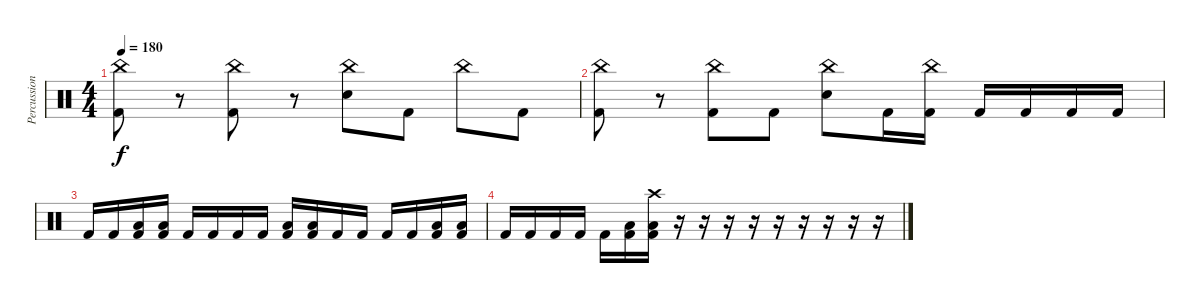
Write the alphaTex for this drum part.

\track ("Percussion" "Percussion") {instrument percussion}
\staff {score}
\articulation defaults
\ts (4 4)
\tempo 180
\clef neutral
\ks c
("China (hit)" "Kick (hit) 2").8{dy f} r.8 ("China (hit)" "Kick (hit) 2").8 r.8 ("China (hit)" "Electric Snare (hit)").8 "Kick (hit) 2".8 "China (hit)".8 "Kick (hit) 2".8 |
("China (hit)" "Kick (hit) 2").8 r.8 ("China (hit)" "Kick (hit) 2").8 "Kick (hit) 2".8 ("China (hit)" "Electric Snare (hit)").8 "Kick (hit) 2".16 ("China (hit)" "Kick (hit) 2").16 "Kick (hit) 2".16 "Kick (hit) 2".16 "Kick (hit) 2".16 "Kick (hit) 2".16 |
"Kick (hit) 2".16 "Kick (hit) 2".16 ("Low Floor Tom (hit)" "Kick (hit) 2").16 ("Low Floor Tom (hit)" "Kick (hit) 2").16 "Kick (hit) 2".16 "Kick (hit) 2".16 "Kick (hit) 2".16 "Kick (hit) 2".16 ("Low Floor Tom (hit)" "Kick (hit) 2").16 ("Low Floor Tom (hit)" "Kick (hit) 2").16 "Kick (hit) 2".16 "Kick (hit) 2".16 "Kick (hit) 2".16 "Kick (hit) 2".16 ("Low Floor Tom (hit)" "Kick (hit) 2").16 ("Low Floor Tom (hit)" "Kick (hit) 2").16 |
"Kick (hit) 2".16 "Kick (hit) 2".16 "Kick (hit) 2".16 "Kick (hit) 2".16 "Kick (hit) 2".16 ("Low Floor Tom (hit)" "Kick (hit) 2").16 ("Crash high (hit)" "Low Floor Tom (hit)" "Kick (hit) 2").16 r.16 r.16 r.16 r.16 r.16 r.16 r.16 r.16 r.16
